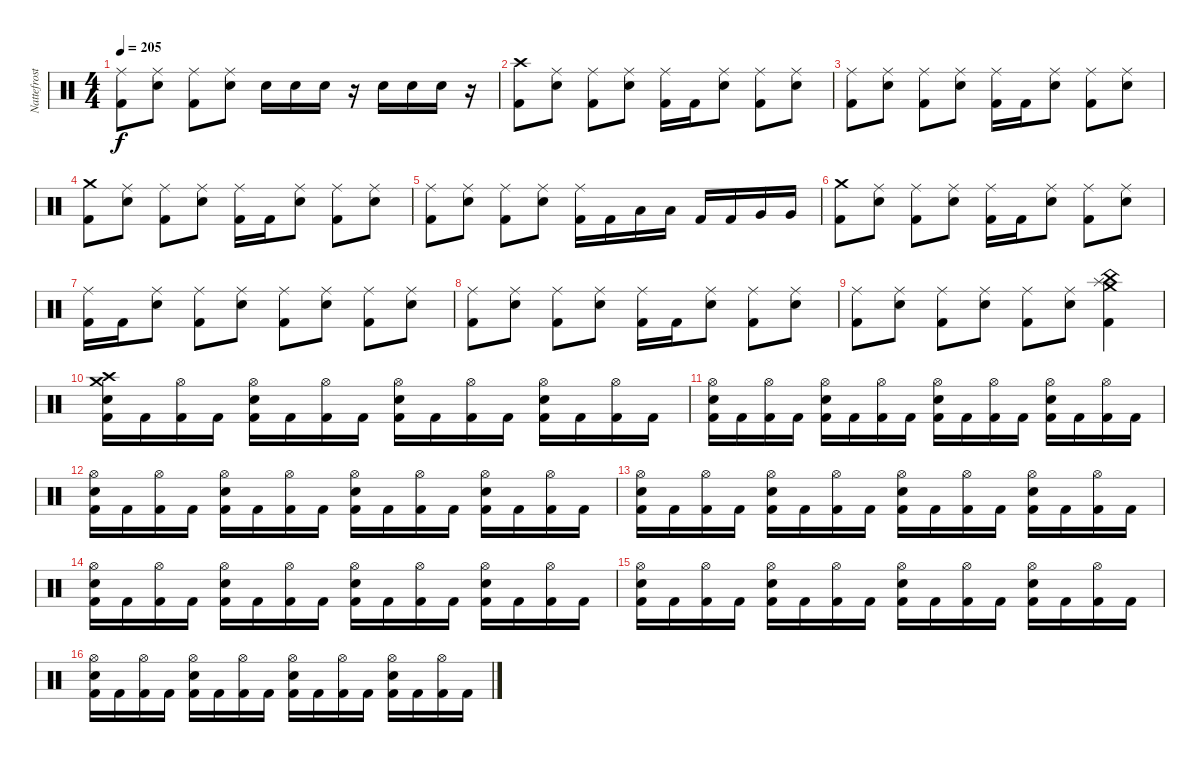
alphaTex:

\track ("Nattefrost" "Nattefrost") {instrument percussion}
\staff {score}
\articulation defaults
\ts (4 4)
\tempo 205
\clef neutral
\ks c
("Ride (middle)" "Kick (hit) 2").8{dy f} ("Ride (middle)" "Snare (hit) 2").8 ("Ride (middle)" "Kick (hit) 2").8 ("Ride (middle)" "Snare (hit) 2").8 "Snare (hit) 2".16 "Snare (hit) 2".16 "Snare (hit) 2".16 r.16 "Snare (hit) 2".16 "Snare (hit) 2".16 "Snare (hit) 2".16 r.16 |
("Crash high (hit)" "Kick (hit) 2").8 ("Ride (middle)" "Snare (hit) 2").8 ("Ride (middle)" "Kick (hit) 2").8 ("Ride (middle)" "Snare (hit) 2").8 ("Ride (middle)" "Kick (hit) 2").16 "Kick (hit) 2".16 ("Ride (middle)" "Snare (hit) 2").8 ("Ride (middle)" "Kick (hit) 2").8 ("Ride (middle)" "Snare (hit) 2").8 |
("Ride (middle)" "Kick (hit) 2").8 ("Ride (middle)" "Snare (hit) 2").8 ("Ride (middle)" "Kick (hit) 2").8 ("Ride (middle)" "Snare (hit) 2").8 ("Ride (middle)" "Kick (hit) 2").16 "Kick (hit) 2".16 ("Ride (middle)" "Snare (hit) 2").8 ("Ride (middle)" "Kick (hit) 2").8 ("Ride (middle)" "Snare (hit) 2").8 |
("Crash medium (hit)" "Kick (hit) 2").8 ("Ride (middle)" "Snare (hit) 2").8 ("Ride (middle)" "Kick (hit) 2").8 ("Ride (middle)" "Snare (hit) 2").8 ("Ride (middle)" "Kick (hit) 2").16 "Kick (hit) 2".16 ("Ride (middle)" "Snare (hit) 2").8 ("Ride (middle)" "Kick (hit) 2").8 ("Ride (middle)" "Snare (hit) 2").8 |
("Ride (middle)" "Kick (hit) 2").8 ("Ride (middle)" "Snare (hit) 2").8 ("Ride (middle)" "Kick (hit) 2").8 ("Ride (middle)" "Snare (hit) 2").8 ("Ride (middle)" "Kick (hit) 2").16 "Kick (hit) 2".16 "Low Tom (hit)".16 "Low Tom (hit)".16 "Kick (hit) 2".16 "Kick (hit) 2".16 "Very Low Tom (hit)".16 "Very Low Tom (hit)".16 |
("Crash medium (hit)" "Kick (hit) 2").8 ("Ride (middle)" "Snare (hit) 2").8 ("Ride (middle)" "Kick (hit) 2").8 ("Ride (middle)" "Snare (hit) 2").8 ("Ride (middle)" "Kick (hit) 2").16 "Kick (hit) 2".16 ("Ride (middle)" "Snare (hit) 2").8 ("Ride (middle)" "Kick (hit) 2").8 ("Ride (middle)" "Snare (hit) 2").8 |
("Ride (middle)" "Kick (hit) 2").16 "Kick (hit) 2".16 ("Ride (middle)" "Snare (hit) 2").8 ("Ride (middle)" "Kick (hit) 2").8 ("Ride (middle)" "Snare (hit) 2").8 ("Ride (middle)" "Kick (hit) 2").8 ("Ride (middle)" "Snare (hit) 2").8 ("Ride (middle)" "Kick (hit) 2").8 ("Ride (middle)" "Snare (hit) 2").8 |
("Ride (middle)" "Kick (hit) 2").8 ("Ride (middle)" "Snare (hit) 2").8 ("Ride (middle)" "Kick (hit) 2").8 ("Ride (middle)" "Snare (hit) 2").8 ("Ride (middle)" "Kick (hit) 2").16 "Kick (hit) 2".16 ("Ride (middle)" "Snare (hit) 2").8 ("Ride (middle)" "Kick (hit) 2").8 ("Ride (middle)" "Snare (hit) 2").8 |
("Ride (middle)" "Kick (hit) 2").8 ("Ride (middle)" "Snare (hit) 2").8 ("Ride (middle)" "Kick (hit) 2").8 ("Ride (middle)" "Snare (hit) 2").8 ("Ride (middle)" "Kick (hit) 2").8 ("Ride (middle)" "Snare (hit) 2").8 ("Splash (hit)" "China (hit)" "Crash medium (hit)" "Kick (hit) 2").4 |
("Crash high (hit)" "Crash medium (hit)" "Snare (hit) 2" "Kick (hit) 2").16 "Kick (hit) 2".16 ("Hi-Hat (open)" "Kick (hit) 2").16 "Kick (hit) 2".16 ("Hi-Hat (open)" "Snare (hit) 2" "Kick (hit) 2").16 "Kick (hit) 2".16 ("Hi-Hat (open)" "Kick (hit) 2").16 "Kick (hit) 2".16 ("Hi-Hat (open)" "Snare (hit) 2" "Kick (hit) 2").16 "Kick (hit) 2".16 ("Hi-Hat (open)" "Kick (hit) 2").16 "Kick (hit) 2".16 ("Hi-Hat (open)" "Snare (hit) 2" "Kick (hit) 2").16 "Kick (hit) 2".16 ("Hi-Hat (open)" "Kick (hit) 2").16 "Kick (hit) 2".16 |
("Hi-Hat (open)" "Snare (hit) 2" "Kick (hit) 2").16 "Kick (hit) 2".16 ("Hi-Hat (open)" "Kick (hit) 2").16 "Kick (hit) 2".16 ("Hi-Hat (open)" "Snare (hit) 2" "Kick (hit) 2").16 "Kick (hit) 2".16 ("Hi-Hat (open)" "Kick (hit) 2").16 "Kick (hit) 2".16 ("Hi-Hat (open)" "Snare (hit) 2" "Kick (hit) 2").16 "Kick (hit) 2".16 ("Hi-Hat (open)" "Kick (hit) 2").16 "Kick (hit) 2".16 ("Hi-Hat (open)" "Snare (hit) 2" "Kick (hit) 2").16 "Kick (hit) 2".16 ("Hi-Hat (open)" "Kick (hit) 2").16 "Kick (hit) 2".16 |
("Hi-Hat (open)" "Snare (hit) 2" "Kick (hit) 2").16 "Kick (hit) 2".16 ("Hi-Hat (open)" "Kick (hit) 2").16 "Kick (hit) 2".16 ("Hi-Hat (open)" "Snare (hit) 2" "Kick (hit) 2").16 "Kick (hit) 2".16 ("Hi-Hat (open)" "Kick (hit) 2").16 "Kick (hit) 2".16 ("Hi-Hat (open)" "Snare (hit) 2" "Kick (hit) 2").16 "Kick (hit) 2".16 ("Hi-Hat (open)" "Kick (hit) 2").16 "Kick (hit) 2".16 ("Hi-Hat (open)" "Snare (hit) 2" "Kick (hit) 2").16 "Kick (hit) 2".16 ("Hi-Hat (open)" "Kick (hit) 2").16 "Kick (hit) 2".16 |
("Hi-Hat (open)" "Snare (hit) 2" "Kick (hit) 2").16 "Kick (hit) 2".16 ("Hi-Hat (open)" "Kick (hit) 2").16 "Kick (hit) 2".16 ("Hi-Hat (open)" "Snare (hit) 2" "Kick (hit) 2").16 "Kick (hit) 2".16 ("Hi-Hat (open)" "Kick (hit) 2").16 "Kick (hit) 2".16 ("Hi-Hat (open)" "Snare (hit) 2" "Kick (hit) 2").16 "Kick (hit) 2".16 ("Hi-Hat (open)" "Kick (hit) 2").16 "Kick (hit) 2".16 ("Hi-Hat (open)" "Snare (hit) 2" "Kick (hit) 2").16 "Kick (hit) 2".16 ("Hi-Hat (open)" "Kick (hit) 2").16 "Kick (hit) 2".16 |
("Hi-Hat (open)" "Snare (hit) 2" "Kick (hit) 2").16 "Kick (hit) 2".16 ("Hi-Hat (open)" "Kick (hit) 2").16 "Kick (hit) 2".16 ("Hi-Hat (open)" "Snare (hit) 2" "Kick (hit) 2").16 "Kick (hit) 2".16 ("Hi-Hat (open)" "Kick (hit) 2").16 "Kick (hit) 2".16 ("Hi-Hat (open)" "Snare (hit) 2" "Kick (hit) 2").16 "Kick (hit) 2".16 ("Hi-Hat (open)" "Kick (hit) 2").16 "Kick (hit) 2".16 ("Hi-Hat (open)" "Snare (hit) 2" "Kick (hit) 2").16 "Kick (hit) 2".16 ("Hi-Hat (open)" "Kick (hit) 2").16 "Kick (hit) 2".16 |
("Hi-Hat (open)" "Snare (hit) 2" "Kick (hit) 2").16 "Kick (hit) 2".16 ("Hi-Hat (open)" "Kick (hit) 2").16 "Kick (hit) 2".16 ("Hi-Hat (open)" "Snare (hit) 2" "Kick (hit) 2").16 "Kick (hit) 2".16 ("Hi-Hat (open)" "Kick (hit) 2").16 "Kick (hit) 2".16 ("Hi-Hat (open)" "Snare (hit) 2" "Kick (hit) 2").16 "Kick (hit) 2".16 ("Hi-Hat (open)" "Kick (hit) 2").16 "Kick (hit) 2".16 ("Hi-Hat (open)" "Snare (hit) 2" "Kick (hit) 2").16 "Kick (hit) 2".16 ("Hi-Hat (open)" "Kick (hit) 2").16 "Kick (hit) 2".16 |
("Hi-Hat (open)" "Snare (hit) 2" "Kick (hit) 2").16 "Kick (hit) 2".16 ("Hi-Hat (open)" "Kick (hit) 2").16 "Kick (hit) 2".16 ("Hi-Hat (open)" "Snare (hit) 2" "Kick (hit) 2").16 "Kick (hit) 2".16 ("Hi-Hat (open)" "Kick (hit) 2").16 "Kick (hit) 2".16 ("Hi-Hat (open)" "Snare (hit) 2" "Kick (hit) 2").16 "Kick (hit) 2".16 ("Hi-Hat (open)" "Kick (hit) 2").16 "Kick (hit) 2".16 ("Hi-Hat (open)" "Snare (hit) 2" "Kick (hit) 2").16 "Kick (hit) 2".16 ("Hi-Hat (open)" "Kick (hit) 2").16 "Kick (hit) 2".16
